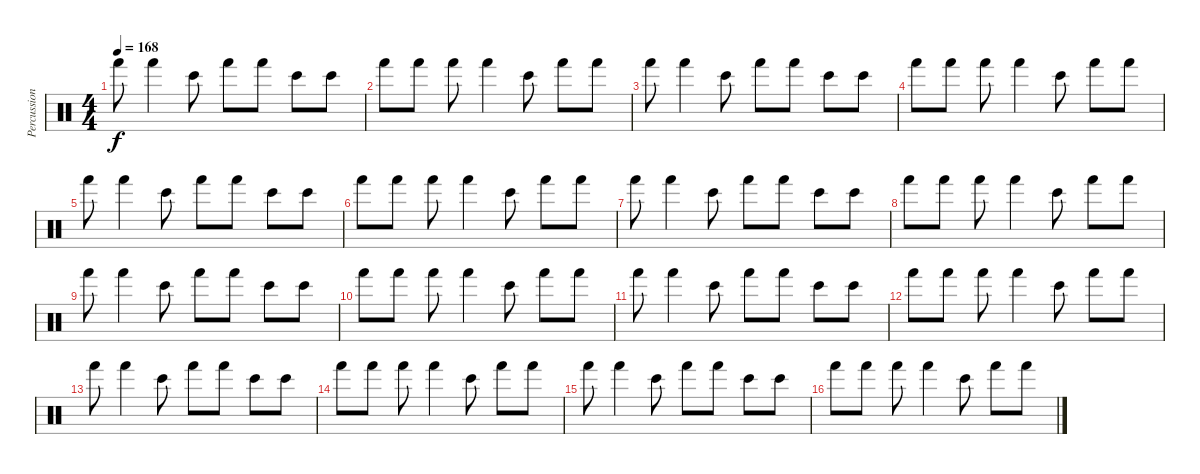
\track ("Percussions" "Percussion") {instrument percussion}
\staff {score}
\articulation defaults
\ts (4 4)
\tempo 168
\clef neutral
\ks c "Hand (hit)".8{dy f} "Hand (hit)".4 "Bongo High (hit)".8 "Hand (hit)".8 "Hand (hit)".8 "Bongo High (hit)".8 "Bongo High (hit)".8
|
"Hand (hit)".8 "Hand (hit)".8 "Hand (hit)".8 "Hand (hit)".4 "Bongo High (hit)".8 "Hand (hit)".8 "Hand (hit)".8 |
"Hand (hit)".8 "Hand (hit)".4 "Bongo High (hit)".8 "Hand (hit)".8 "Hand (hit)".8 "Bongo High (hit)".8 "Bongo High (hit)".8 |
"Hand (hit)".8 "Hand (hit)".8 "Hand (hit)".8 "Hand (hit)".4 "Bongo High (hit)".8 "Hand (hit)".8 "Hand (hit)".8 |
"Hand (hit)".8 "Hand (hit)".4 "Bongo High (hit)".8 "Hand (hit)".8 "Hand (hit)".8 "Bongo High (hit)".8 "Bongo High (hit)".8 |
"Hand (hit)".8 "Hand (hit)".8 "Hand (hit)".8 "Hand (hit)".4 "Bongo High (hit)".8 "Hand (hit)".8 "Hand (hit)".8 |
"Hand (hit)".8 "Hand (hit)".4 "Bongo High (hit)".8 "Hand (hit)".8 "Hand (hit)".8 "Bongo High (hit)".8 "Bongo High (hit)".8 |
"Hand (hit)".8 "Hand (hit)".8 "Hand (hit)".8 "Hand (hit)".4 "Bongo High (hit)".8 "Hand (hit)".8 "Hand (hit)".8 |
"Hand (hit)".8 "Hand (hit)".4 "Bongo High (hit)".8 "Hand (hit)".8 "Hand (hit)".8 "Bongo High (hit)".8 "Bongo High (hit)".8 |
"Hand (hit)".8 "Hand (hit)".8 "Hand (hit)".8 "Hand (hit)".4 "Bongo High (hit)".8 "Hand (hit)".8 "Hand (hit)".8 |
"Hand (hit)".8 "Hand (hit)".4 "Bongo High (hit)".8 "Hand (hit)".8 "Hand (hit)".8 "Bongo High (hit)".8 "Bongo High (hit)".8 |
"Hand (hit)".8 "Hand (hit)".8 "Hand (hit)".8 "Hand (hit)".4 "Bongo High (hit)".8 "Hand (hit)".8 "Hand (hit)".8 |
"Hand (hit)".8 "Hand (hit)".4 "Bongo High (hit)".8 "Hand (hit)".8 "Hand (hit)".8 "Bongo High (hit)".8 "Bongo High (hit)".8 |
"Hand (hit)".8 "Hand (hit)".8 "Hand (hit)".8 "Hand (hit)".4 "Bongo High (hit)".8 "Hand (hit)".8 "Hand (hit)".8 |
"Hand (hit)".8 "Hand (hit)".4 "Bongo High (hit)".8 "Hand (hit)".8 "Hand (hit)".8 "Bongo High (hit)".8 "Bongo High (hit)".8 |
"Hand (hit)".8 "Hand (hit)".8 "Hand (hit)".8 "Hand (hit)".4 "Bongo High (hit)".8 "Hand (hit)".8 "Hand (hit)".8
